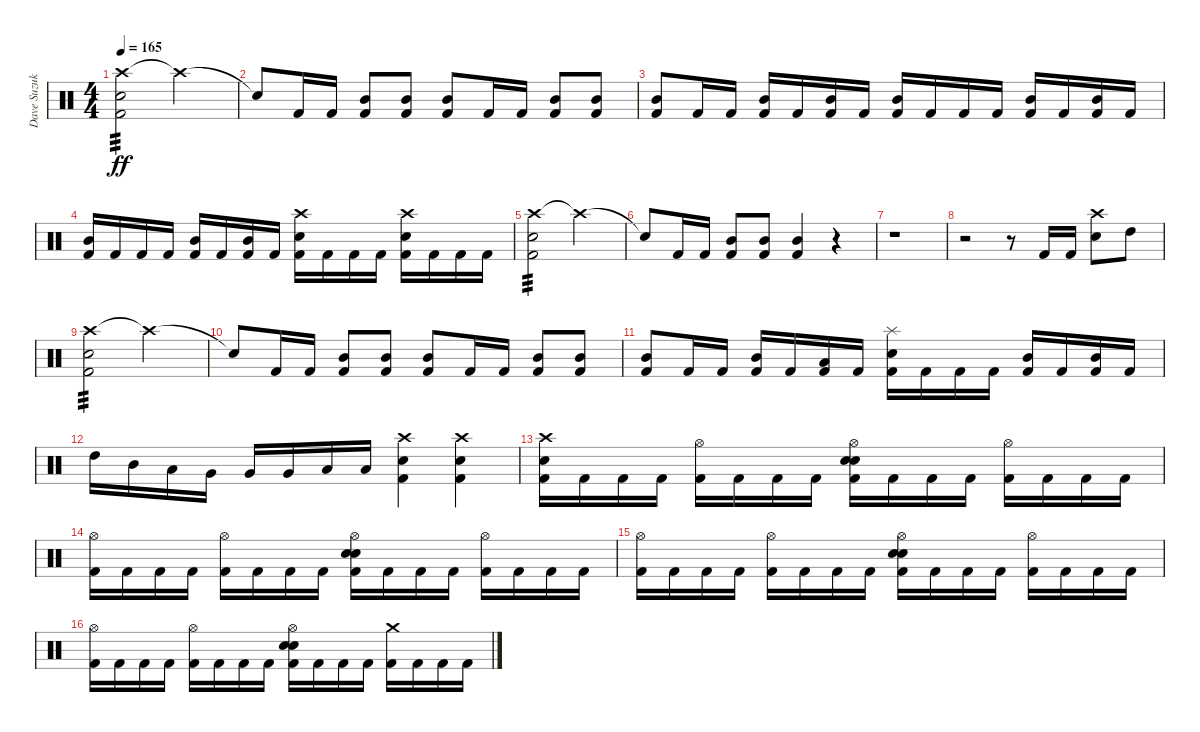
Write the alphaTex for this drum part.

\track ("Dave Suzuki - Drums" "Dave Suzuk") {instrument percussion}
\staff {score}
\articulation defaults
\ts (4 4)
\tempo 165
\clef neutral
\ks c
("Crash high (hit)" "Electric Snare (hit)" "Kick (hit) 2").2{tp 3 dy ff} "Crash high (hit)"{t}.2 |
"Snare (hit)"{t}.8 "Kick (hit) 2".16 "Kick (hit) 2".16 ("Mid Tom (hit)" "Kick (hit) 2").8 ("Mid Tom (hit)" "Kick (hit) 2").8 ("Mid Tom (hit)" "Kick (hit) 2").8 "Kick (hit) 2".16 "Kick (hit) 2".16 ("Mid Tom (hit)" "Kick (hit) 2").8 ("Mid Tom (hit)" "Kick (hit) 2").8 |
("Mid Tom (hit)" "Kick (hit) 2").8 "Kick (hit) 2".16 "Kick (hit) 2".16 ("Mid Tom (hit)" "Kick (hit) 2").16 "Kick (hit) 2".16 ("Mid Tom (hit)" "Kick (hit) 2").16 "Kick (hit) 2".16 ("Mid Tom (hit)" "Kick (hit) 2").16 "Kick (hit) 2".16 "Kick (hit) 2".16 "Kick (hit) 2".16 ("Mid Tom (hit)" "Kick (hit) 2").16 "Kick (hit) 2".16 ("Mid Tom (hit)" "Kick (hit) 2").16 "Kick (hit) 2".16 |
("Mid Tom (hit)" "Kick (hit) 2").16 "Kick (hit) 2".16 "Kick (hit) 2".16 "Kick (hit) 2".16 ("Mid Tom (hit)" "Kick (hit) 2").16 "Kick (hit) 2".16 ("Mid Tom (hit)" "Kick (hit) 2").16 "Kick (hit) 2".16 ("Crash high (hit)" "Electric Snare (hit)" "Kick (hit) 2").16 "Kick (hit) 2".16 "Kick (hit) 2".16 "Kick (hit) 2".16 ("Crash high (hit)" "Electric Snare (hit)" "Kick (hit) 2").16 "Kick (hit) 2".16 "Kick (hit) 2".16 "Kick (hit) 2".16 |
("Crash high (hit)" "Electric Snare (hit)" "Kick (hit) 2").2{tp 3} "Crash high (hit)"{t}.2 |
"Snare (hit)"{t}.8 "Kick (hit) 2".16 "Kick (hit) 2".16 ("Mid Tom (hit)" "Kick (hit) 2").8 ("Mid Tom (hit)" "Kick (hit) 2").8 ("Mid Tom (hit)" "Kick (hit) 2").4 r.4 |
r.1 |
r.2 r.8 "Kick (hit) 2".16 "Kick (hit) 2".16 ("Crash high (hit)" "Electric Snare (hit)").8 "High Tom (hit)".8 |
("Crash high (hit)" "Electric Snare (hit)" "Kick (hit) 2").2{tp 3} "Crash high (hit)"{t}.2 |
"Snare (hit)"{t}.8 "Kick (hit) 2".16 "Kick (hit) 2".16 ("Mid Tom (hit)" "Kick (hit) 2").8 ("Mid Tom (hit)" "Kick (hit) 2").8 ("Mid Tom (hit)" "Kick (hit) 2").8 "Kick (hit) 2".16 "Kick (hit) 2".16 ("Mid Tom (hit)" "Kick (hit) 2").8 ("Mid Tom (hit)" "Kick (hit) 2").8 |
("Mid Tom (hit)" "Kick (hit) 2").8 "Kick (hit) 2".16 "Kick (hit) 2".16 ("Mid Tom (hit)" "Kick (hit) 2").16 "Kick (hit) 2".16 ("Low Tom (hit)" "Kick (hit) 2").16 "Kick (hit) 2".16 ("Splash (hit)" "Electric Snare (hit)" "Kick (hit) 2").16 "Kick (hit) 2".16 "Kick (hit) 2".16 "Kick (hit) 2".16 ("Mid Tom (hit)" "Kick (hit) 2").16 "Kick (hit) 2".16 ("Mid Tom (hit)" "Kick (hit) 2").16 "Kick (hit) 2".16 |
"High Tom (hit)".16 "Mid Tom (hit)".16 "Low Tom (hit)".16 "Very Low Tom (hit)".16 "Very Low Tom (hit)".16 "Very Low Tom (hit)".16 "Low Floor Tom (hit)".16 "Low Floor Tom (hit)".16 ("Crash high (hit)" "Electric Snare (hit)" "Kick (hit) 2").4 ("Crash high (hit)" "Electric Snare (hit)" "Kick (hit) 2").4 |
("Crash high (hit)" "Electric Snare (hit)" "Kick (hit) 2").16 "Kick (hit) 2".16 "Kick (hit) 2".16 "Kick (hit) 2".16 ("Hi-Hat (open)" "Kick (hit) 2").16 "Kick (hit) 2".16 "Kick (hit) 2".16 "Kick (hit) 2".16 ("Hi-Hat (open)" "Electric Snare (hit)" "Electric Snare (hit)" "Kick (hit) 2").16 "Kick (hit) 2".16 "Kick (hit) 2".16 "Kick (hit) 2".16 ("Hi-Hat (open)" "Kick (hit) 2").16 "Kick (hit) 2".16 "Kick (hit) 2".16 "Kick (hit) 2".16 |
("Hi-Hat (open)" "Kick (hit) 2").16 "Kick (hit) 2".16 "Kick (hit) 2".16 "Kick (hit) 2".16 ("Hi-Hat (open)" "Kick (hit) 2").16 "Kick (hit) 2".16 "Kick (hit) 2".16 "Kick (hit) 2".16 ("Hi-Hat (open)" "Electric Snare (hit)" "Electric Snare (hit)" "Kick (hit) 2").16 "Kick (hit) 2".16 "Kick (hit) 2".16 "Kick (hit) 2".16 ("Hi-Hat (open)" "Kick (hit) 2").16 "Kick (hit) 2".16 "Kick (hit) 2".16 "Kick (hit) 2".16 |
("Hi-Hat (open)" "Kick (hit) 2").16 "Kick (hit) 2".16 "Kick (hit) 2".16 "Kick (hit) 2".16 ("Hi-Hat (open)" "Kick (hit) 2").16 "Kick (hit) 2".16 "Kick (hit) 2".16 "Kick (hit) 2".16 ("Hi-Hat (open)" "Electric Snare (hit)" "Electric Snare (hit)" "Kick (hit) 2").16 "Kick (hit) 2".16 "Kick (hit) 2".16 "Kick (hit) 2".16 ("Hi-Hat (open)" "Kick (hit) 2").16 "Kick (hit) 2".16 "Kick (hit) 2".16 "Kick (hit) 2".16 |
("Hi-Hat (open)" "Kick (hit) 2").16 "Kick (hit) 2".16 "Kick (hit) 2".16 "Kick (hit) 2".16 ("Hi-Hat (open)" "Kick (hit) 2").16 "Kick (hit) 2".16 "Kick (hit) 2".16 "Kick (hit) 2".16 ("Hi-Hat (open)" "Electric Snare (hit)" "Electric Snare (hit)" "Kick (hit) 2").16 "Kick (hit) 2".16 "Kick (hit) 2".16 "Kick (hit) 2".16 ("Crash medium (hit)" "Kick (hit) 2").16 "Kick (hit) 2".16 "Kick (hit) 2".16 "Kick (hit) 2".16
